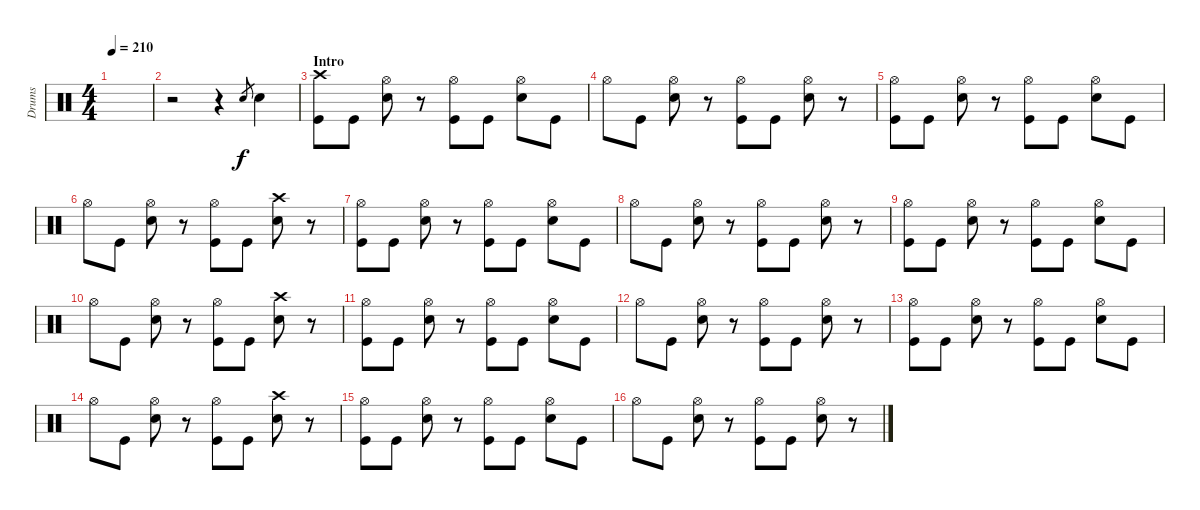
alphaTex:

\track ("Drums" "Drums") {instrument percussion}
\staff {score}
\articulation defaults
\ts (4 4)
\tempo 210
\clef neutral
\ks c
|
r.2 r.4 "Snare (hit) 2".8{gr} "Snare (hit) 2".4 |
\section ("" "Intro")
("Crash high (hit)" "Kick (hit)").8 "Kick (hit)".8 ("Hi-Hat (open)" "Snare (hit) 2").8 r.8 ("Hi-Hat (open)" "Kick (hit)").8 "Kick (hit)".8 ("Hi-Hat (open)" "Snare (hit) 2").8 "Kick (hit)".8 |
"Hi-Hat (open)".8 "Kick (hit)".8 ("Hi-Hat (open)" "Snare (hit) 2").8 r.8 ("Hi-Hat (open)" "Kick (hit)").8 "Kick (hit)".8 ("Hi-Hat (open)" "Snare (hit) 2").8 r.8 |
("Hi-Hat (open)" "Kick (hit)").8 "Kick (hit)".8 ("Hi-Hat (open)" "Snare (hit) 2").8 r.8 ("Hi-Hat (open)" "Kick (hit)").8 "Kick (hit)".8 ("Hi-Hat (open)" "Snare (hit) 2").8 "Kick (hit)".8 |
"Hi-Hat (open)".8 "Kick (hit)".8 ("Hi-Hat (open)" "Snare (hit) 2").8 r.8 ("Hi-Hat (open)" "Kick (hit)").8 "Kick (hit)".8 ("Crash high (hit)" "Snare (hit) 2").8 r.8 |
("Hi-Hat (open)" "Kick (hit)").8 "Kick (hit)".8 ("Hi-Hat (open)" "Snare (hit) 2").8 r.8 ("Hi-Hat (open)" "Kick (hit)").8 "Kick (hit)".8 ("Hi-Hat (open)" "Snare (hit) 2").8 "Kick (hit)".8 |
"Hi-Hat (open)".8 "Kick (hit)".8 ("Hi-Hat (open)" "Snare (hit) 2").8 r.8 ("Hi-Hat (open)" "Kick (hit)").8 "Kick (hit)".8 ("Hi-Hat (open)" "Snare (hit) 2").8 r.8 |
("Hi-Hat (open)" "Kick (hit)").8 "Kick (hit)".8 ("Hi-Hat (open)" "Snare (hit) 2").8 r.8 ("Hi-Hat (open)" "Kick (hit)").8 "Kick (hit)".8 ("Hi-Hat (open)" "Snare (hit) 2").8 "Kick (hit)".8 |
"Hi-Hat (open)".8 "Kick (hit)".8 ("Hi-Hat (open)" "Snare (hit) 2").8 r.8 ("Hi-Hat (open)" "Kick (hit)").8 "Kick (hit)".8 ("Crash high (hit)" "Snare (hit) 2").8 r.8 |
("Hi-Hat (open)" "Kick (hit)").8 "Kick (hit)".8 ("Hi-Hat (open)" "Snare (hit) 2").8 r.8 ("Hi-Hat (open)" "Kick (hit)").8 "Kick (hit)".8 ("Hi-Hat (open)" "Snare (hit) 2").8 "Kick (hit)".8 |
"Hi-Hat (open)".8 "Kick (hit)".8 ("Hi-Hat (open)" "Snare (hit) 2").8 r.8 ("Hi-Hat (open)" "Kick (hit)").8 "Kick (hit)".8 ("Hi-Hat (open)" "Snare (hit) 2").8 r.8 |
("Hi-Hat (open)" "Kick (hit)").8 "Kick (hit)".8 ("Hi-Hat (open)" "Snare (hit) 2").8 r.8 ("Hi-Hat (open)" "Kick (hit)").8 "Kick (hit)".8 ("Hi-Hat (open)" "Snare (hit) 2").8 "Kick (hit)".8 |
"Hi-Hat (open)".8 "Kick (hit)".8 ("Hi-Hat (open)" "Snare (hit) 2").8 r.8 ("Hi-Hat (open)" "Kick (hit)").8 "Kick (hit)".8 ("Crash high (hit)" "Snare (hit) 2").8 r.8 |
("Hi-Hat (open)" "Kick (hit)").8 "Kick (hit)".8 ("Hi-Hat (open)" "Snare (hit) 2").8 r.8 ("Hi-Hat (open)" "Kick (hit)").8 "Kick (hit)".8 ("Hi-Hat (open)" "Snare (hit) 2").8 "Kick (hit)".8 |
"Hi-Hat (open)".8 "Kick (hit)".8 ("Hi-Hat (open)" "Snare (hit) 2").8 r.8 ("Hi-Hat (open)" "Kick (hit)").8 "Kick (hit)".8 ("Hi-Hat (open)" "Snare (hit) 2").8 r.8
